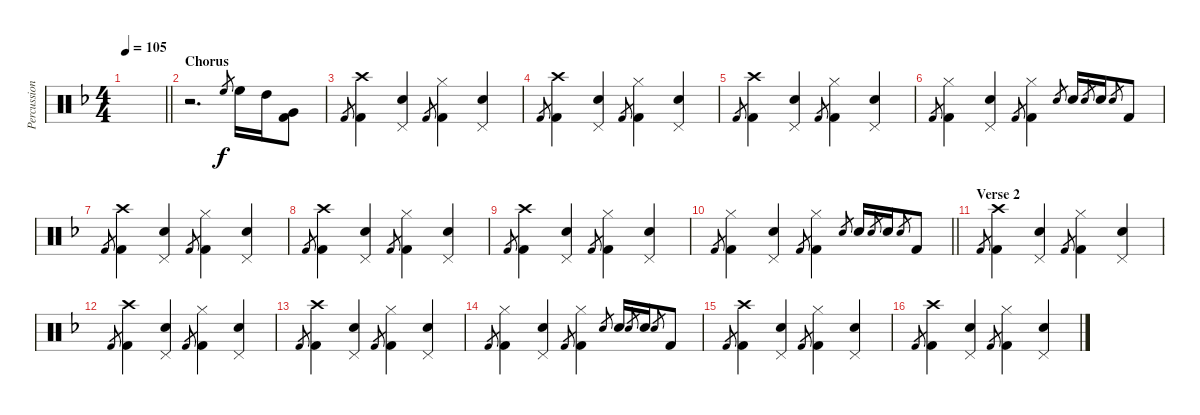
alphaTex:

\track ("Percussion" "Percussion") {instrument percussion}
\staff {score}
\articulation defaults
\ts (4 4)
\tempo 105
\clef neutral
\barLineRight lightlight
\ks f
|
\section ("" "Chorus")
r.2{d} "High Floor Tom (hit)".8{gr} "High Floor Tom (hit)".16 "High Tom (hit)".16 ("Kick (hit) 2" "Very Low Tom (hit)").8 |
"Kick (hit) 2".8{gr} ("Kick (hit) 2" "Crash high (hit)").4 ("Snare (hit) 2" "Pedal Hi-Hat (hit)").4 "Kick (hit) 2".8{gr} ("Kick (hit) 2" "Hi-Hat (closed)").4 ("Snare (hit) 2" "Pedal Hi-Hat (hit)").4 |
"Kick (hit) 2".8{gr} ("Kick (hit) 2" "Crash high (hit)").4 ("Snare (hit) 2" "Pedal Hi-Hat (hit)").4 "Kick (hit) 2".8{gr} ("Kick (hit) 2" "Hi-Hat (closed)").4 ("Snare (hit) 2" "Pedal Hi-Hat (hit)").4 |
"Kick (hit) 2".8{gr} ("Kick (hit) 2" "Crash high (hit)").4 ("Snare (hit) 2" "Pedal Hi-Hat (hit)").4 "Kick (hit) 2".8{gr} ("Kick (hit) 2" "Hi-Hat (closed)").4 ("Snare (hit) 2" "Pedal Hi-Hat (hit)").4 |
"Kick (hit) 2".8{gr} ("Kick (hit) 2" "Hi-Hat (closed)").4 ("Snare (hit) 2" "Pedal Hi-Hat (hit)").4 "Kick (hit) 2".8{gr} ("Kick (hit) 2" "Hi-Hat (closed)").4 "Snare (hit) 2".8{gr} "Snare (hit) 2".16 "Snare (hit) 2".8{gr} "Snare (hit) 2".16 "Snare (hit) 2".8{gr} "Kick (hit) 2".8 |
"Kick (hit) 2".8{gr} ("Kick (hit) 2" "Crash high (hit)").4 ("Snare (hit) 2" "Pedal Hi-Hat (hit)").4 "Kick (hit) 2".8{gr} ("Kick (hit) 2" "Hi-Hat (closed)").4 ("Snare (hit) 2" "Pedal Hi-Hat (hit)").4 |
"Kick (hit) 2".8{gr} ("Kick (hit) 2" "Crash high (hit)").4 ("Snare (hit) 2" "Pedal Hi-Hat (hit)").4 "Kick (hit) 2".8{gr} ("Kick (hit) 2" "Hi-Hat (closed)").4 ("Snare (hit) 2" "Pedal Hi-Hat (hit)").4 |
"Kick (hit) 2".8{gr} ("Kick (hit) 2" "Crash high (hit)").4 ("Snare (hit) 2" "Pedal Hi-Hat (hit)").4 "Kick (hit) 2".8{gr} ("Kick (hit) 2" "Hi-Hat (closed)").4 ("Snare (hit) 2" "Pedal Hi-Hat (hit)").4 |
\barLineRight lightlight "Kick (hit) 2".8{gr}
("Kick (hit) 2" "Hi-Hat (closed)").4 ("Snare (hit) 2" "Pedal Hi-Hat (hit)").4 "Kick (hit) 2".8{gr} ("Kick (hit) 2" "Hi-Hat (closed)").4 "Snare (hit) 2".8{gr} "Snare (hit) 2".16 "Snare (hit) 2".8{gr} "Snare (hit) 2".16 "Snare (hit) 2".8{gr} "Kick (hit) 2".8 |
\section ("" "Verse 2")
"Kick (hit) 2".8{gr} ("Kick (hit) 2" "Crash high (hit)").4 ("Snare (hit) 2" "Pedal Hi-Hat (hit)").4 "Kick (hit) 2".8{gr} ("Kick (hit) 2" "Hi-Hat (closed)").4 ("Snare (hit) 2" "Pedal Hi-Hat (hit)").4 |
"Kick (hit) 2".8{gr} ("Kick (hit) 2" "Crash high (hit)").4 ("Snare (hit) 2" "Pedal Hi-Hat (hit)").4 "Kick (hit) 2".8{gr} ("Kick (hit) 2" "Hi-Hat (closed)").4 ("Snare (hit) 2" "Pedal Hi-Hat (hit)").4 |
"Kick (hit) 2".8{gr} ("Kick (hit) 2" "Crash high (hit)").4 ("Snare (hit) 2" "Pedal Hi-Hat (hit)").4 "Kick (hit) 2".8{gr} ("Kick (hit) 2" "Hi-Hat (closed)").4 ("Snare (hit) 2" "Pedal Hi-Hat (hit)").4 |
"Kick (hit) 2".8{gr} ("Kick (hit) 2" "Hi-Hat (closed)").4 ("Snare (hit) 2" "Pedal Hi-Hat (hit)").4 "Kick (hit) 2".8{gr} ("Kick (hit) 2" "Hi-Hat (closed)").4 "Snare (hit) 2".8{gr} "Snare (hit) 2".16 "Snare (hit) 2".8{gr} "Snare (hit) 2".16 "Snare (hit) 2".8{gr} "Kick (hit) 2".8 |
"Kick (hit) 2".8{gr} ("Kick (hit) 2" "Crash high (hit)").4 ("Snare (hit) 2" "Pedal Hi-Hat (hit)").4 "Kick (hit) 2".8{gr} ("Kick (hit) 2" "Hi-Hat (closed)").4 ("Snare (hit) 2" "Pedal Hi-Hat (hit)").4 |
"Kick (hit) 2".8{gr} ("Kick (hit) 2" "Crash high (hit)").4 ("Snare (hit) 2" "Pedal Hi-Hat (hit)").4 "Kick (hit) 2".8{gr} ("Kick (hit) 2" "Hi-Hat (closed)").4 ("Snare (hit) 2" "Pedal Hi-Hat (hit)").4
